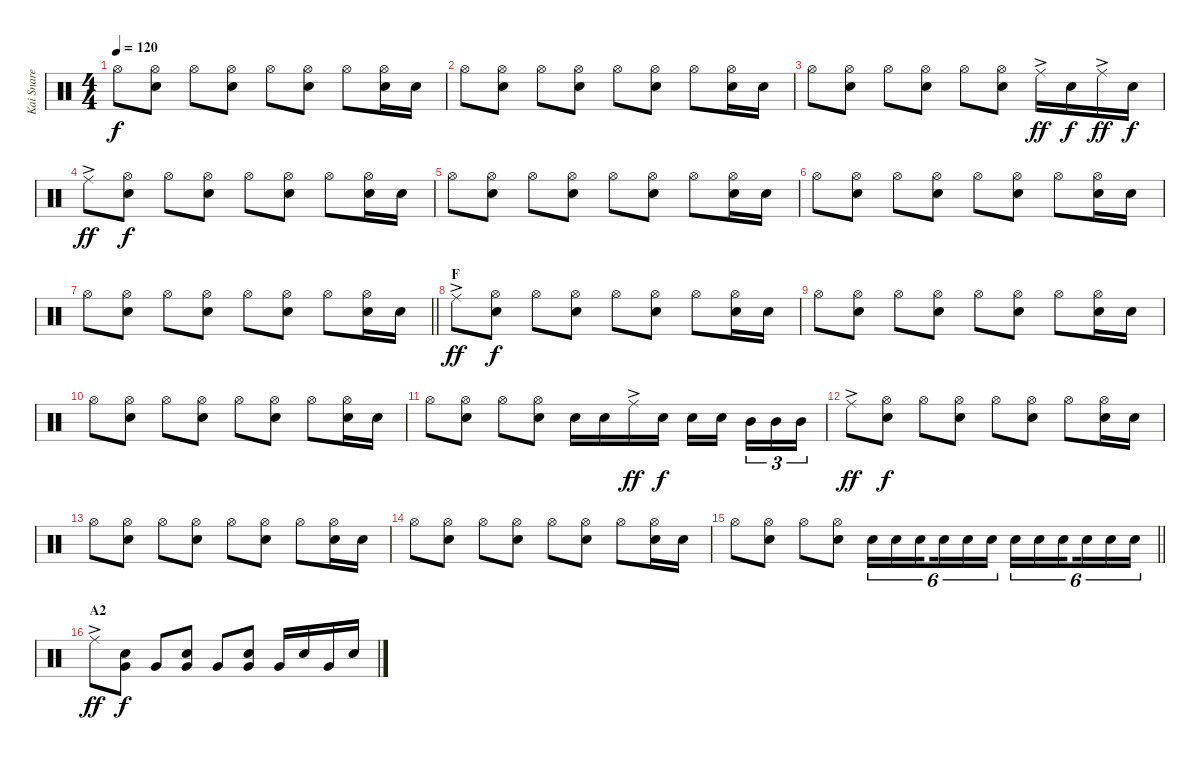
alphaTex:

\track ("Kai Snare" "Kai Snare") {instrument percussion}
\staff {score}
\articulation defaults
\ts (4 4)
\tempo 120
\clef neutral
\ks c "Hi-Hat (open)".8{dy f}
("Hi-Hat (open)" "Snare (hit) 2").8 "Hi-Hat (open)".8 ("Hi-Hat (open)" "Snare (hit) 2").8 "Hi-Hat (open)".8 ("Hi-Hat (open)" "Snare (hit) 2").8 "Hi-Hat (open)".8 ("Hi-Hat (open)" "Snare (hit) 2").16 "Snare (hit) 2".16 |
"Hi-Hat (open)".8 ("Hi-Hat (open)" "Snare (hit) 2").8 "Hi-Hat (open)".8 ("Hi-Hat (open)" "Snare (hit) 2").8 "Hi-Hat (open)".8 ("Hi-Hat (open)" "Snare (hit) 2").8 "Hi-Hat (open)".8 ("Hi-Hat (open)" "Snare (hit) 2").16 "Snare (hit) 2".16 |
"Hi-Hat (open)".8 ("Hi-Hat (open)" "Snare (hit) 2").8 "Hi-Hat (open)".8 ("Hi-Hat (open)" "Snare (hit) 2").8 "Hi-Hat (open)".8 ("Hi-Hat (open)" "Snare (hit) 2").8 "Ride (middle)"{ac}.16{dy ff} "Snare (hit) 2".16{dy f} "Ride (middle)"{ac}.16{dy ff} "Snare (hit) 2".16{dy f} |
"Ride (middle)"{ac}.8{dy ff} ("Hi-Hat (open)" "Snare (hit) 2").8{dy f} "Hi-Hat (open)".8 ("Hi-Hat (open)" "Snare (hit) 2").8 "Hi-Hat (open)".8 ("Hi-Hat (open)" "Snare (hit) 2").8 "Hi-Hat (open)".8 ("Hi-Hat (open)" "Snare (hit) 2").16 "Snare (hit) 2".16 |
"Hi-Hat (open)".8 ("Hi-Hat (open)" "Snare (hit) 2").8 "Hi-Hat (open)".8 ("Hi-Hat (open)" "Snare (hit) 2").8 "Hi-Hat (open)".8 ("Hi-Hat (open)" "Snare (hit) 2").8 "Hi-Hat (open)".8 ("Hi-Hat (open)" "Snare (hit) 2").16 "Snare (hit) 2".16 |
"Hi-Hat (open)".8 ("Hi-Hat (open)" "Snare (hit) 2").8 "Hi-Hat (open)".8 ("Hi-Hat (open)" "Snare (hit) 2").8 "Hi-Hat (open)".8 ("Hi-Hat (open)" "Snare (hit) 2").8 "Hi-Hat (open)".8 ("Hi-Hat (open)" "Snare (hit) 2").16 "Snare (hit) 2".16 |
\barLineRight lightlight "Hi-Hat (open)".8
("Hi-Hat (open)" "Snare (hit) 2").8 "Hi-Hat (open)".8 ("Hi-Hat (open)" "Snare (hit) 2").8 "Hi-Hat (open)".8 ("Hi-Hat (open)" "Snare (hit) 2").8 "Hi-Hat (open)".8 ("Hi-Hat (open)" "Snare (hit) 2").16 "Snare (hit) 2".16 |
\section ("" "F")
"Ride (middle)"{ac}.8{dy ff} ("Hi-Hat (open)" "Snare (hit) 2").8{dy f} "Hi-Hat (open)".8 ("Hi-Hat (open)" "Snare (hit) 2").8 "Hi-Hat (open)".8 ("Hi-Hat (open)" "Snare (hit) 2").8 "Hi-Hat (open)".8 ("Hi-Hat (open)" "Snare (hit) 2").16 "Snare (hit) 2".16 |
"Hi-Hat (open)".8 ("Hi-Hat (open)" "Snare (hit) 2").8 "Hi-Hat (open)".8 ("Hi-Hat (open)" "Snare (hit) 2").8 "Hi-Hat (open)".8 ("Hi-Hat (open)" "Snare (hit) 2").8 "Hi-Hat (open)".8 ("Hi-Hat (open)" "Snare (hit) 2").16 "Snare (hit) 2".16 |
"Hi-Hat (open)".8 ("Hi-Hat (open)" "Snare (hit) 2").8 "Hi-Hat (open)".8 ("Hi-Hat (open)" "Snare (hit) 2").8 "Hi-Hat (open)".8 ("Hi-Hat (open)" "Snare (hit) 2").8 "Hi-Hat (open)".8 ("Hi-Hat (open)" "Snare (hit) 2").16 "Snare (hit) 2".16 |
"Hi-Hat (open)".8 ("Hi-Hat (open)" "Snare (hit) 2").8 "Hi-Hat (open)".8 ("Hi-Hat (open)" "Snare (hit) 2").8 "Snare (hit) 2".16 "Snare (hit) 2".16 "Ride (middle)"{ac}.16{dy ff} "Snare (hit) 2".16{dy f} "Snare (hit) 2".16 "Snare (hit) 2".16{beam splitsecondary} "Mid Tom (hit)".16{tu (3 2)} "Mid Tom (hit)".16{tu (3 2)} "Mid Tom (hit)".16{tu (3 2)} |
"Ride (middle)"{ac}.8{dy ff} ("Hi-Hat (open)" "Snare (hit) 2").8{dy f} "Hi-Hat (open)".8 ("Hi-Hat (open)" "Snare (hit) 2").8 "Hi-Hat (open)".8 ("Hi-Hat (open)" "Snare (hit) 2").8 "Hi-Hat (open)".8 ("Hi-Hat (open)" "Snare (hit) 2").16 "Snare (hit) 2".16 |
"Hi-Hat (open)".8 ("Hi-Hat (open)" "Snare (hit) 2").8 "Hi-Hat (open)".8 ("Hi-Hat (open)" "Snare (hit) 2").8 "Hi-Hat (open)".8 ("Hi-Hat (open)" "Snare (hit) 2").8 "Hi-Hat (open)".8 ("Hi-Hat (open)" "Snare (hit) 2").16 "Snare (hit) 2".16 |
"Hi-Hat (open)".8 ("Hi-Hat (open)" "Snare (hit) 2").8 "Hi-Hat (open)".8 ("Hi-Hat (open)" "Snare (hit) 2").8 "Hi-Hat (open)".8 ("Hi-Hat (open)" "Snare (hit) 2").8 "Hi-Hat (open)".8 ("Hi-Hat (open)" "Snare (hit) 2").16 "Snare (hit) 2".16 |
\barLineRight lightlight "Hi-Hat (open)".8
("Hi-Hat (open)" "Snare (hit) 2").8 "Hi-Hat (open)".8 ("Hi-Hat (open)" "Snare (hit) 2").8 "Snare (hit) 2".16{tu (6 4)} "Snare (hit) 2".16{tu (6 4)} "Snare (hit) 2".16{tu (6 4) beam splitsecondary} "Snare (hit) 2".16{tu (6 4)} "Snare (hit) 2".16{tu (6 4)} "Snare (hit) 2".16{tu (6 4)} "Snare (hit) 2".16{tu (6 4)} "Snare (hit) 2".16{tu (6 4)} "Snare (hit) 2".16{tu (6 4) beam splitsecondary} "Snare (hit) 2".16{tu (6 4)} "Snare (hit) 2".16{tu (6 4)} "Snare (hit) 2".16{tu (6 4)} |
\section ("" "A2")
"Ride (middle)"{ac}.8{dy ff} ("Very Low Tom (hit)" "Snare (hit) 2").8{dy f} "Very Low Tom (hit)".8 ("Very Low Tom (hit)" "Snare (hit) 2").8 "Very Low Tom (hit)".8 ("Very Low Tom (hit)" "Snare (hit) 2").8 "Very Low Tom (hit)".16 "Snare (hit) 2".16 "Very Low Tom (hit)".16 "Snare (hit) 2".16
